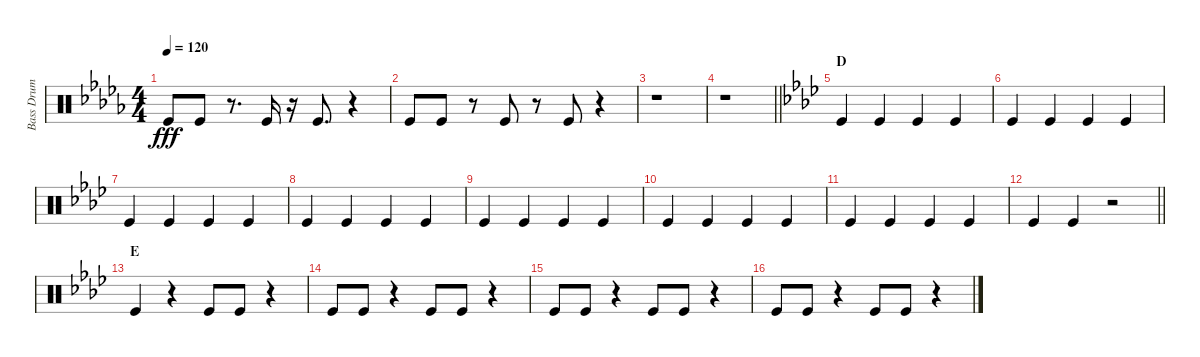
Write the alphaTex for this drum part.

\track ("Bass Drum" "Bass Drum") {instrument percussion}
\staff {score}
\articulation defaults
\ts (4 4)
\tempo 120
\clef neutral
\ks db "Kick (hit)".8{dy fff} "Kick (hit)".8
r.8{d} "Kick (hit)".16 r.16 "Kick (hit)".8{d} r.4 |
"Kick (hit)".8 "Kick (hit)".8 r.8 "Kick (hit)".8 r.8 "Kick (hit)".8 r.4 |
r.1 |
\barLineRight lightlight
r.1 |
\section ("" "D")
\ks ab "Kick (hit)".4 "Kick (hit)".4 "Kick (hit)".4 "Kick (hit)".4
|
"Kick (hit)".4 "Kick (hit)".4 "Kick (hit)".4 "Kick (hit)".4 |
"Kick (hit)".4 "Kick (hit)".4 "Kick (hit)".4 "Kick (hit)".4 |
"Kick (hit)".4 "Kick (hit)".4 "Kick (hit)".4 "Kick (hit)".4 |
"Kick (hit)".4 "Kick (hit)".4 "Kick (hit)".4 "Kick (hit)".4 |
"Kick (hit)".4 "Kick (hit)".4 "Kick (hit)".4 "Kick (hit)".4 |
"Kick (hit)".4 "Kick (hit)".4 "Kick (hit)".4 "Kick (hit)".4 |
\barLineRight lightlight "Kick (hit)".4 "Kick (hit)".4
r.2 |
\section ("" "E")
"Kick (hit)".4 r.4 "Kick (hit)".8 "Kick (hit)".8 r.4 |
"Kick (hit)".8 "Kick (hit)".8 r.4 "Kick (hit)".8 "Kick (hit)".8 r.4 |
"Kick (hit)".8 "Kick (hit)".8 r.4 "Kick (hit)".8 "Kick (hit)".8 r.4 |
"Kick (hit)".8 "Kick (hit)".8 r.4 "Kick (hit)".8 "Kick (hit)".8 r.4
